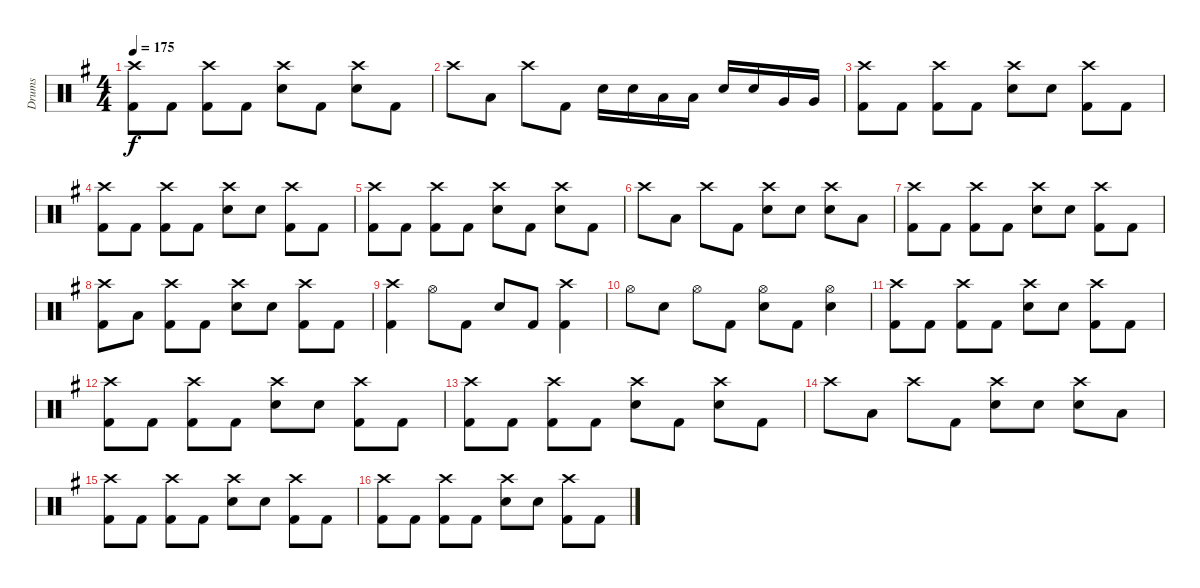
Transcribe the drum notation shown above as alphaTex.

\track ("Drums" "Drums") {instrument percussion}
\staff {score}
\articulation defaults
\ts (4 4)
\tempo 175
\clef neutral
\ks g
("Crash high (hit)" "Kick (hit) 2").8{dy f} "Kick (hit) 2".8 ("Crash high (hit)" "Kick (hit) 2").8 "Kick (hit) 2".8 ("Crash high (hit)" "Electric Snare (hit)").8 "Kick (hit) 2".8 ("Crash high (hit)" "Electric Snare (hit)").8 "Kick (hit) 2".8 |
"Crash high (hit)".8 "Low Tom (hit)".8 "Crash high (hit)".8 "Kick (hit) 2".8 "Electric Snare (hit)".16 "Electric Snare (hit)".16 "Low Tom (hit)".16 "Low Tom (hit)".16 "Electric Snare (hit)".16 "Electric Snare (hit)".16 "Very Low Tom (hit)".16 "Very Low Tom (hit)".16 |
("Crash high (hit)" "Kick (hit) 2").8 "Kick (hit) 2".8 ("Crash high (hit)" "Kick (hit) 2").8 "Kick (hit) 2".8 ("Crash high (hit)" "Electric Snare (hit)").8 "Electric Snare (hit)".8 ("Crash high (hit)" "Kick (hit) 2").8 "Kick (hit) 2".8 |
("Crash high (hit)" "Kick (hit) 2").8 "Kick (hit) 2".8 ("Crash high (hit)" "Kick (hit) 2").8 "Kick (hit) 2".8 ("Crash high (hit)" "Electric Snare (hit)").8 "Electric Snare (hit)".8 ("Crash high (hit)" "Kick (hit) 2").8 "Kick (hit) 2".8 |
("Crash high (hit)" "Kick (hit) 2").8 "Kick (hit) 2".8 ("Crash high (hit)" "Kick (hit) 2").8 "Kick (hit) 2".8 ("Crash high (hit)" "Electric Snare (hit)").8 "Kick (hit) 2".8 ("Crash high (hit)" "Electric Snare (hit)").8 "Kick (hit) 2".8 |
"Crash high (hit)".8 "Low Tom (hit)".8 "Crash high (hit)".8 "Kick (hit) 2".8 ("Crash high (hit)" "Electric Snare (hit)").8 "Electric Snare (hit)".8 ("Crash high (hit)" "Electric Snare (hit)").8 "Low Tom (hit)".8 |
("Crash high (hit)" "Kick (hit) 2").8 "Kick (hit) 2".8 ("Crash high (hit)" "Kick (hit) 2").8 "Kick (hit) 2".8 ("Crash high (hit)" "Electric Snare (hit)").8 "Electric Snare (hit)".8 ("Crash high (hit)" "Kick (hit) 2").8 "Kick (hit) 2".8 |
("Crash high (hit)" "Kick (hit) 2").8 "Low Tom (hit)".8 ("Crash high (hit)" "Kick (hit) 2").8 "Kick (hit) 2".8 ("Crash high (hit)" "Electric Snare (hit)").8 "Electric Snare (hit)".8 ("Crash high (hit)" "Kick (hit) 2").8 "Kick (hit) 2".8 |
("Crash high (hit)" "Kick (hit) 2").4 "Hi-Hat (open)".8 "Kick (hit) 2".8 "Electric Snare (hit)".8 "Kick (hit) 2".8 ("Crash high (hit)" "Kick (hit) 2").4 |
"Hi-Hat (open)".8 "Electric Snare (hit)".8 "Hi-Hat (open)".8 "Kick (hit) 2".8 ("Hi-Hat (open)" "Electric Snare (hit)").8 "Kick (hit) 2".8 ("Hi-Hat (open)" "Electric Snare (hit)").4 |
("Crash high (hit)" "Kick (hit) 2").8 "Kick (hit) 2".8 ("Crash high (hit)" "Kick (hit) 2").8 "Kick (hit) 2".8 ("Crash high (hit)" "Electric Snare (hit)").8 "Electric Snare (hit)".8 ("Crash high (hit)" "Kick (hit) 2").8 "Kick (hit) 2".8 |
("Crash high (hit)" "Kick (hit) 2").8 "Kick (hit) 2".8 ("Crash high (hit)" "Kick (hit) 2").8 "Kick (hit) 2".8 ("Crash high (hit)" "Electric Snare (hit)").8 "Electric Snare (hit)".8 ("Crash high (hit)" "Kick (hit) 2").8 "Kick (hit) 2".8 |
("Crash high (hit)" "Kick (hit) 2").8 "Kick (hit) 2".8 ("Crash high (hit)" "Kick (hit) 2").8 "Kick (hit) 2".8 ("Crash high (hit)" "Electric Snare (hit)").8 "Kick (hit) 2".8 ("Crash high (hit)" "Electric Snare (hit)").8 "Kick (hit) 2".8 |
"Crash high (hit)".8 "Low Tom (hit)".8 "Crash high (hit)".8 "Kick (hit) 2".8 ("Crash high (hit)" "Electric Snare (hit)").8 "Electric Snare (hit)".8 ("Crash high (hit)" "Electric Snare (hit)").8 "Low Tom (hit)".8 |
("Crash high (hit)" "Kick (hit) 2").8 "Kick (hit) 2".8 ("Crash high (hit)" "Kick (hit) 2").8 "Kick (hit) 2".8 ("Crash high (hit)" "Electric Snare (hit)").8 "Electric Snare (hit)".8 ("Crash high (hit)" "Kick (hit) 2").8 "Kick (hit) 2".8 |
("Crash high (hit)" "Kick (hit) 2").8 "Kick (hit) 2".8 ("Crash high (hit)" "Kick (hit) 2").8 "Kick (hit) 2".8 ("Crash high (hit)" "Electric Snare (hit)").8 "Electric Snare (hit)".8 ("Crash high (hit)" "Kick (hit) 2").8 "Kick (hit) 2".8
